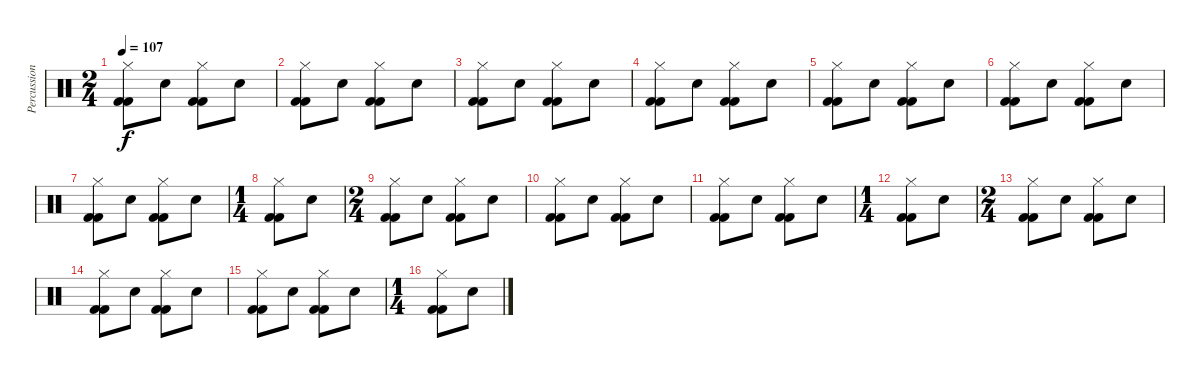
\track ("Percussioni" "Percussion") {instrument percussion}
\staff {score}
\articulation defaults
\ts (2 4)
\tempo 107
\clef neutral
\ks c
("Hi-Hat (closed)" "Kick (hit) 2" "Kick (hit) 2").8{dy f} "Electric Snare (hit)".8 ("Hi-Hat (closed)" "Kick (hit) 2" "Kick (hit) 2").8 "Electric Snare (hit)".8 |
("Hi-Hat (closed)" "Kick (hit) 2" "Kick (hit) 2").8 "Electric Snare (hit)".8 ("Hi-Hat (closed)" "Kick (hit) 2" "Kick (hit) 2").8 "Electric Snare (hit)".8 |
("Hi-Hat (closed)" "Kick (hit) 2" "Kick (hit) 2").8 "Electric Snare (hit)".8 ("Hi-Hat (closed)" "Kick (hit) 2" "Kick (hit) 2").8 "Electric Snare (hit)".8 |
("Hi-Hat (closed)" "Kick (hit) 2" "Kick (hit) 2").8 "Electric Snare (hit)".8 ("Hi-Hat (closed)" "Kick (hit) 2" "Kick (hit) 2").8 "Electric Snare (hit)".8 |
("Hi-Hat (closed)" "Kick (hit) 2" "Kick (hit) 2").8 "Electric Snare (hit)".8 ("Hi-Hat (closed)" "Kick (hit) 2" "Kick (hit) 2").8 "Electric Snare (hit)".8 |
("Hi-Hat (closed)" "Kick (hit) 2" "Kick (hit) 2").8 "Electric Snare (hit)".8 ("Hi-Hat (closed)" "Kick (hit) 2" "Kick (hit) 2").8 "Electric Snare (hit)".8 |
("Hi-Hat (closed)" "Kick (hit) 2" "Kick (hit) 2").8 "Electric Snare (hit)".8 ("Hi-Hat (closed)" "Kick (hit) 2" "Kick (hit) 2").8 "Electric Snare (hit)".8 |
\ts (1 4)
("Hi-Hat (closed)" "Kick (hit) 2" "Kick (hit) 2").8 "Electric Snare (hit)".8 |
\ts (2 4)
("Hi-Hat (closed)" "Kick (hit) 2" "Kick (hit) 2").8 "Electric Snare (hit)".8 ("Hi-Hat (closed)" "Kick (hit) 2" "Kick (hit) 2").8 "Electric Snare (hit)".8 |
("Hi-Hat (closed)" "Kick (hit) 2" "Kick (hit) 2").8 "Electric Snare (hit)".8 ("Hi-Hat (closed)" "Kick (hit) 2" "Kick (hit) 2").8 "Electric Snare (hit)".8 |
("Hi-Hat (closed)" "Kick (hit) 2" "Kick (hit) 2").8 "Electric Snare (hit)".8 ("Hi-Hat (closed)" "Kick (hit) 2" "Kick (hit) 2").8 "Electric Snare (hit)".8 |
\ts (1 4)
("Hi-Hat (closed)" "Kick (hit) 2" "Kick (hit) 2").8 "Electric Snare (hit)".8 |
\ts (2 4)
("Hi-Hat (closed)" "Kick (hit) 2" "Kick (hit) 2").8 "Electric Snare (hit)".8 ("Hi-Hat (closed)" "Kick (hit) 2" "Kick (hit) 2").8 "Electric Snare (hit)".8 |
("Hi-Hat (closed)" "Kick (hit) 2" "Kick (hit) 2").8 "Electric Snare (hit)".8 ("Hi-Hat (closed)" "Kick (hit) 2" "Kick (hit) 2").8 "Electric Snare (hit)".8 |
("Hi-Hat (closed)" "Kick (hit) 2" "Kick (hit) 2").8 "Electric Snare (hit)".8 ("Hi-Hat (closed)" "Kick (hit) 2" "Kick (hit) 2").8 "Electric Snare (hit)".8 |
\ts (1 4)
("Hi-Hat (closed)" "Kick (hit) 2" "Kick (hit) 2").8 "Electric Snare (hit)".8
